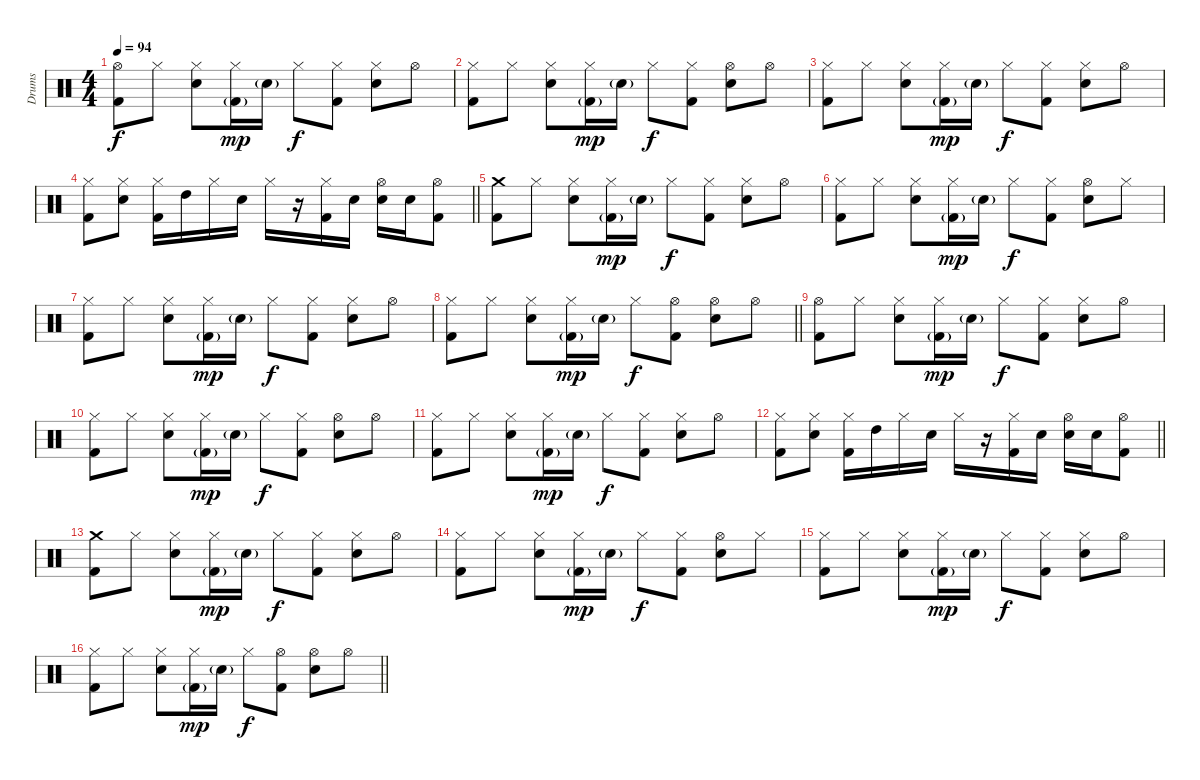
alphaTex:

\track ("Drums" "Drums") {instrument percussion}
\staff {score}
\articulation defaults
\ts (4 4)
\tempo 94
\clef neutral
\ks c
("Hi-Hat (open)" "Kick (hit) 2").8{dy f} "Hi-Hat (closed)".8 ("Hi-Hat (closed)" "Electric Snare (hit)").8 ("Hi-Hat (closed)" "Kick (hit) 2"{g}).16{dy mp} "Electric Snare (hit)"{g}.16 "Hi-Hat (closed)".8{dy f} ("Hi-Hat (closed)" "Kick (hit) 2").8 ("Hi-Hat (closed)" "Electric Snare (hit)").8 "Hi-Hat (open)".8 |
("Hi-Hat (closed)" "Kick (hit) 2").8 "Hi-Hat (closed)".8 ("Hi-Hat (closed)" "Electric Snare (hit)").8 ("Hi-Hat (closed)" "Kick (hit) 2"{g}).16{dy mp} "Electric Snare (hit)"{g}.16 "Hi-Hat (closed)".8{dy f} ("Hi-Hat (closed)" "Kick (hit) 2").8 ("Hi-Hat (open)" "Electric Snare (hit)").8 "Hi-Hat (open)".8 |
("Hi-Hat (closed)" "Kick (hit) 2").8 "Hi-Hat (closed)".8 ("Hi-Hat (closed)" "Electric Snare (hit)").8 ("Hi-Hat (closed)" "Kick (hit) 2"{g}).16{dy mp} "Electric Snare (hit)"{g}.16 "Hi-Hat (closed)".8{dy f} ("Hi-Hat (closed)" "Kick (hit) 2").8 ("Hi-Hat (closed)" "Electric Snare (hit)").8 "Hi-Hat (open)".8 |
\barLineRight lightlight
("Hi-Hat (closed)" "Kick (hit) 2").8 ("Hi-Hat (closed)" "Electric Snare (hit)").8 ("Hi-Hat (closed)" "Kick (hit) 2").16 "High Tom (hit)".16 "Hi-Hat (closed)".16 "Electric Snare (hit)".16 "Hi-Hat (closed)".16 r.16 ("Hi-Hat (closed)" "Kick (hit) 2").16 "Electric Snare (hit)".16 ("Hi-Hat (open)" "Electric Snare (hit)").16 "Electric Snare (hit)".16 ("Hi-Hat (open)" "Kick (hit) 2").8 |
("Crash medium (hit)" "Kick (hit) 2").8 "Hi-Hat (closed)".8 ("Hi-Hat (closed)" "Electric Snare (hit)").8 ("Hi-Hat (closed)" "Kick (hit) 2"{g}).16{dy mp} "Electric Snare (hit)"{g}.16 "Hi-Hat (closed)".8{dy f} ("Hi-Hat (closed)" "Kick (hit) 2").8 ("Hi-Hat (closed)" "Electric Snare (hit)").8 "Hi-Hat (open)".8 |
("Hi-Hat (closed)" "Kick (hit) 2").8 "Hi-Hat (closed)".8 ("Hi-Hat (closed)" "Electric Snare (hit)").8 ("Hi-Hat (closed)" "Kick (hit) 2"{g}).16{dy mp} "Electric Snare (hit)"{g}.16 "Hi-Hat (closed)".8{dy f} ("Hi-Hat (closed)" "Kick (hit) 2").8 ("Hi-Hat (open)" "Electric Snare (hit)").8 "Hi-Hat (closed)".8 |
("Hi-Hat (closed)" "Kick (hit) 2").8 "Hi-Hat (closed)".8 ("Hi-Hat (closed)" "Electric Snare (hit)").8 ("Hi-Hat (closed)" "Kick (hit) 2"{g}).16{dy mp} "Electric Snare (hit)"{g}.16 "Hi-Hat (closed)".8{dy f} ("Hi-Hat (closed)" "Kick (hit) 2").8 ("Hi-Hat (closed)" "Electric Snare (hit)").8 "Hi-Hat (open)".8 |
\barLineRight lightlight
("Hi-Hat (closed)" "Kick (hit) 2").8 "Hi-Hat (closed)".8 ("Hi-Hat (closed)" "Electric Snare (hit)").8 ("Hi-Hat (closed)" "Kick (hit) 2"{g}).16{dy mp} "Electric Snare (hit)"{g}.16 "Hi-Hat (closed)".8{dy f} ("Hi-Hat (open)" "Kick (hit) 2").8 ("Hi-Hat (open)" "Electric Snare (hit)").8 "Hi-Hat (open)".8 |
("Hi-Hat (open)" "Kick (hit) 2").8 "Hi-Hat (closed)".8 ("Hi-Hat (closed)" "Electric Snare (hit)").8 ("Hi-Hat (closed)" "Kick (hit) 2"{g}).16{dy mp} "Electric Snare (hit)"{g}.16 "Hi-Hat (closed)".8{dy f} ("Hi-Hat (closed)" "Kick (hit) 2").8 ("Hi-Hat (closed)" "Electric Snare (hit)").8 "Hi-Hat (open)".8 |
("Hi-Hat (closed)" "Kick (hit) 2").8 "Hi-Hat (closed)".8 ("Hi-Hat (closed)" "Electric Snare (hit)").8 ("Hi-Hat (closed)" "Kick (hit) 2"{g}).16{dy mp} "Electric Snare (hit)"{g}.16 "Hi-Hat (closed)".8{dy f} ("Hi-Hat (closed)" "Kick (hit) 2").8 ("Hi-Hat (open)" "Electric Snare (hit)").8 "Hi-Hat (open)".8 |
("Hi-Hat (closed)" "Kick (hit) 2").8 "Hi-Hat (closed)".8 ("Hi-Hat (closed)" "Electric Snare (hit)").8 ("Hi-Hat (closed)" "Kick (hit) 2"{g}).16{dy mp} "Electric Snare (hit)"{g}.16 "Hi-Hat (closed)".8{dy f} ("Hi-Hat (closed)" "Kick (hit) 2").8 ("Hi-Hat (closed)" "Electric Snare (hit)").8 "Hi-Hat (open)".8 |
\barLineRight lightlight
("Hi-Hat (closed)" "Kick (hit) 2").8 ("Hi-Hat (closed)" "Electric Snare (hit)").8 ("Hi-Hat (closed)" "Kick (hit) 2").16 "High Tom (hit)".16 "Hi-Hat (closed)".16 "Electric Snare (hit)".16 "Hi-Hat (closed)".16 r.16 ("Hi-Hat (closed)" "Kick (hit) 2").16 "Electric Snare (hit)".16 ("Hi-Hat (open)" "Electric Snare (hit)").16 "Electric Snare (hit)".16 ("Hi-Hat (open)" "Kick (hit) 2").8 |
("Crash medium (hit)" "Kick (hit) 2").8 "Hi-Hat (closed)".8 ("Hi-Hat (closed)" "Electric Snare (hit)").8 ("Hi-Hat (closed)" "Kick (hit) 2"{g}).16{dy mp} "Electric Snare (hit)"{g}.16 "Hi-Hat (closed)".8{dy f} ("Hi-Hat (closed)" "Kick (hit) 2").8 ("Hi-Hat (closed)" "Electric Snare (hit)").8 "Hi-Hat (open)".8 |
("Hi-Hat (closed)" "Kick (hit) 2").8 "Hi-Hat (closed)".8 ("Hi-Hat (closed)" "Electric Snare (hit)").8 ("Hi-Hat (closed)" "Kick (hit) 2"{g}).16{dy mp} "Electric Snare (hit)"{g}.16 "Hi-Hat (closed)".8{dy f} ("Hi-Hat (closed)" "Kick (hit) 2").8 ("Hi-Hat (open)" "Electric Snare (hit)").8 "Hi-Hat (closed)".8 |
("Hi-Hat (closed)" "Kick (hit) 2").8 "Hi-Hat (closed)".8 ("Hi-Hat (closed)" "Electric Snare (hit)").8 ("Hi-Hat (closed)" "Kick (hit) 2"{g}).16{dy mp} "Electric Snare (hit)"{g}.16 "Hi-Hat (closed)".8{dy f} ("Hi-Hat (closed)" "Kick (hit) 2").8 ("Hi-Hat (closed)" "Electric Snare (hit)").8 "Hi-Hat (open)".8 |
\barLineRight lightlight
("Hi-Hat (closed)" "Kick (hit) 2").8 "Hi-Hat (closed)".8 ("Hi-Hat (closed)" "Electric Snare (hit)").8 ("Hi-Hat (closed)" "Kick (hit) 2"{g}).16{dy mp} "Electric Snare (hit)"{g}.16 "Hi-Hat (closed)".8{dy f} ("Hi-Hat (open)" "Kick (hit) 2").8 ("Hi-Hat (open)" "Electric Snare (hit)").8 "Hi-Hat (open)".8
